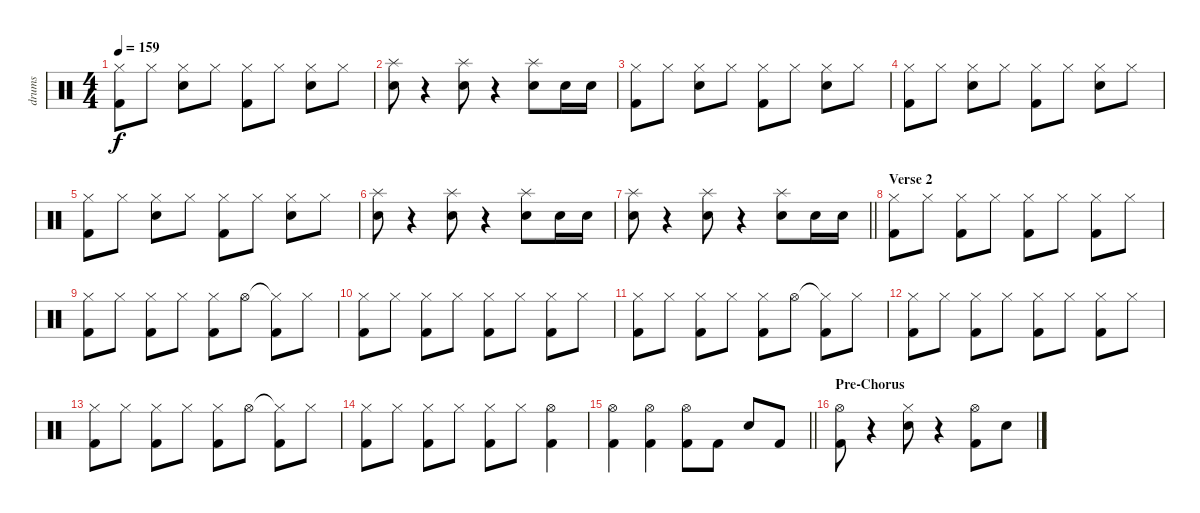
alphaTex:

\track ("drums" "drums") {instrument percussion}
\staff {score}
\articulation defaults
\ts (4 4)
\tempo 159
\clef neutral
\ks c
("Hi-Hat (closed)" "Kick (hit) 2").8{dy f} "Hi-Hat (closed)".8 ("Hi-Hat (closed)" "Electric Snare (hit)").8 "Hi-Hat (closed)".8 ("Hi-Hat (closed)" "Kick (hit) 2").8 "Hi-Hat (closed)".8 ("Hi-Hat (closed)" "Electric Snare (hit)").8 "Hi-Hat (closed)".8 |
("Splash (hit)" "Electric Snare (hit)").8 r.4 ("Splash (hit)" "Electric Snare (hit)").8 r.4 ("Splash (hit)" "Electric Snare (hit)").8 "Electric Snare (hit)".16 "Electric Snare (hit)".16 |
("Hi-Hat (closed)" "Kick (hit) 2").8 "Hi-Hat (closed)".8 ("Hi-Hat (closed)" "Electric Snare (hit)").8 "Hi-Hat (closed)".8 ("Hi-Hat (closed)" "Kick (hit) 2").8 "Hi-Hat (closed)".8 ("Hi-Hat (closed)" "Electric Snare (hit)").8 "Hi-Hat (closed)".8 |
("Hi-Hat (closed)" "Kick (hit) 2").8 "Hi-Hat (closed)".8 ("Hi-Hat (closed)" "Electric Snare (hit)").8 "Hi-Hat (closed)".8 ("Hi-Hat (closed)" "Kick (hit) 2").8 "Hi-Hat (closed)".8 ("Hi-Hat (closed)" "Electric Snare (hit)").8 "Hi-Hat (closed)".8 |
("Hi-Hat (closed)" "Kick (hit) 2").8 "Hi-Hat (closed)".8 ("Hi-Hat (closed)" "Electric Snare (hit)").8 "Hi-Hat (closed)".8 ("Hi-Hat (closed)" "Kick (hit) 2").8 "Hi-Hat (closed)".8 ("Hi-Hat (closed)" "Electric Snare (hit)").8 "Hi-Hat (closed)".8 |
("Splash (hit)" "Electric Snare (hit)").8 r.4 ("Splash (hit)" "Electric Snare (hit)").8 r.4 ("Splash (hit)" "Electric Snare (hit)").8 "Electric Snare (hit)".16 "Electric Snare (hit)".16 |
\barLineRight lightlight
("Splash (hit)" "Electric Snare (hit)").8 r.4 ("Splash (hit)" "Electric Snare (hit)").8 r.4 ("Splash (hit)" "Electric Snare (hit)").8 "Electric Snare (hit)".16 "Electric Snare (hit)".16 |
\section ("" "Verse 2")
("Hi-Hat (closed)" "Kick (hit) 2").8 "Hi-Hat (closed)".8 ("Hi-Hat (closed)" "Kick (hit) 2").8 "Hi-Hat (closed)".8 ("Hi-Hat (closed)" "Kick (hit) 2").8 "Hi-Hat (closed)".8 ("Hi-Hat (closed)" "Kick (hit) 2").8 "Hi-Hat (closed)".8 |
("Hi-Hat (closed)" "Kick (hit) 2").8 "Hi-Hat (closed)".8 ("Hi-Hat (closed)" "Kick (hit) 2").8 "Hi-Hat (closed)".8 ("Hi-Hat (closed)" "Kick (hit) 2").8 "Hi-Hat (open)".8 ("Hi-Hat (closed)"{t} "Kick (hit) 2").8 "Hi-Hat (closed)".8 |
("Hi-Hat (closed)" "Kick (hit) 2").8 "Hi-Hat (closed)".8 ("Hi-Hat (closed)" "Kick (hit) 2").8 "Hi-Hat (closed)".8 ("Hi-Hat (closed)" "Kick (hit) 2").8 "Hi-Hat (closed)".8 ("Hi-Hat (closed)" "Kick (hit) 2").8 "Hi-Hat (closed)".8 |
("Hi-Hat (closed)" "Kick (hit) 2").8 "Hi-Hat (closed)".8 ("Hi-Hat (closed)" "Kick (hit) 2").8 "Hi-Hat (closed)".8 ("Hi-Hat (closed)" "Kick (hit) 2").8 "Hi-Hat (open)".8 ("Hi-Hat (closed)"{t} "Kick (hit) 2").8 "Hi-Hat (closed)".8 |
("Hi-Hat (closed)" "Kick (hit) 2").8 "Hi-Hat (closed)".8 ("Hi-Hat (closed)" "Kick (hit) 2").8 "Hi-Hat (closed)".8 ("Hi-Hat (closed)" "Kick (hit) 2").8 "Hi-Hat (closed)".8 ("Hi-Hat (closed)" "Kick (hit) 2").8 "Hi-Hat (closed)".8 |
("Hi-Hat (closed)" "Kick (hit) 2").8 "Hi-Hat (closed)".8 ("Hi-Hat (closed)" "Kick (hit) 2").8 "Hi-Hat (closed)".8 ("Hi-Hat (closed)" "Kick (hit) 2").8 "Hi-Hat (open)".8 ("Hi-Hat (closed)"{t} "Kick (hit) 2").8 "Hi-Hat (closed)".8 |
("Hi-Hat (closed)" "Kick (hit) 2").8 "Hi-Hat (closed)".8 ("Hi-Hat (closed)" "Kick (hit) 2").8 "Hi-Hat (closed)".8 ("Hi-Hat (closed)" "Kick (hit) 2").8 "Hi-Hat (closed)".8 ("Hi-Hat (open)" "Kick (hit) 2").4 |
\barLineRight lightlight
("Hi-Hat (open)" "Kick (hit) 2").4 ("Hi-Hat (open)" "Kick (hit) 2").4 ("Hi-Hat (open)" "Kick (hit) 2").8 "Kick (hit) 2".8 "Electric Snare (hit)".8 "Kick (hit) 2".8 |
\section ("" "Pre-Chorus")
("Hi-Hat (open)" "Kick (hit) 2").8 r.4 ("Hi-Hat (closed)" "Electric Snare (hit)").8 r.4 ("Hi-Hat (open)" "Kick (hit) 2").8 "Electric Snare (hit)".8
